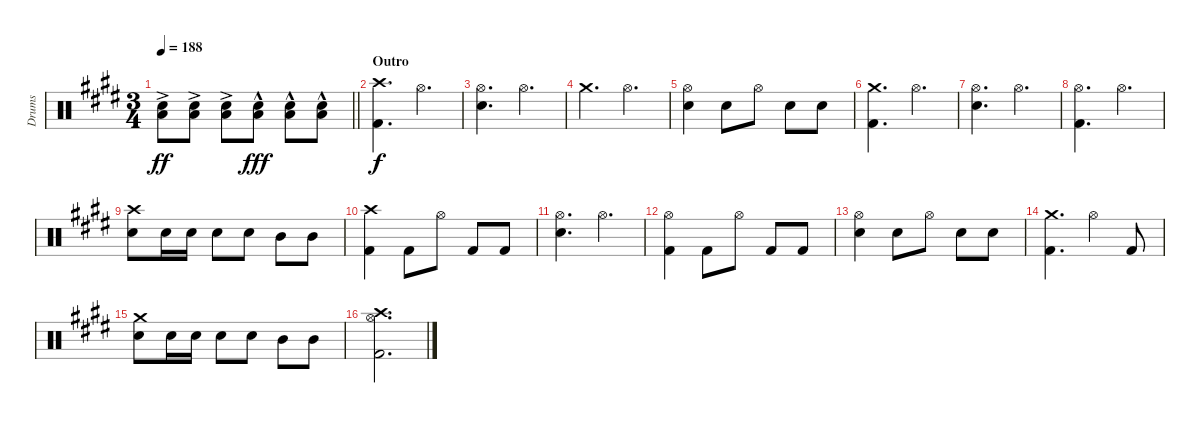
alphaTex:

\track ("Drums" "Drums") {instrument percussion}
\staff {score}
\articulation defaults
\ts (3 4)
\tempo 188
\clef neutral
\barLineRight lightlight
\ks e
("Electric Snare (hit)"{ac} "Low Floor Tom (hit)"{ac}).8{dy ff} ("Electric Snare (hit)"{ac} "Low Floor Tom (hit)"{ac}).8 ("Electric Snare (hit)"{ac} "Low Floor Tom (hit)"{ac}).8 ("Electric Snare (hit)"{hac} "Low Floor Tom (hit)"{hac}).8{dy fff} ("Electric Snare (hit)"{hac} "Low Floor Tom (hit)"{hac}).8 ("Electric Snare (hit)"{hac} "Low Floor Tom (hit)"{hac}).8 |
\section ("" "Outro")
("Crash high (hit)" "Kick (hit) 2").4{d dy f} "Hi-Hat (open)".4{d} |
("Hi-Hat (open)" "Electric Snare (hit)").4{d} "Hi-Hat (open)".4{d} |
"Crash medium (hit)".4{d} "Hi-Hat (open)".4{d} |
("Hi-Hat (open)" "Electric Snare (hit)").4 "Electric Snare (hit)".8 "Hi-Hat (open)".8 "Electric Snare (hit)".8 "Electric Snare (hit)".8 |
("Crash medium (hit)" "Kick (hit) 2").4{d} "Hi-Hat (open)".4{d} |
("Hi-Hat (open)" "Electric Snare (hit)").4{d} "Hi-Hat (open)".4{d} |
("Hi-Hat (open)" "Kick (hit) 2").4{d} "Hi-Hat (open)".4{d} |
("Crash high (hit)" "Electric Snare (hit)").8 "Electric Snare (hit)".16 "Electric Snare (hit)".16 "Electric Snare (hit)".8 "Electric Snare (hit)".8 "Mid Tom (hit)".8 "Mid Tom (hit)".8 |
("Crash high (hit)" "Kick (hit) 2").4 "Kick (hit) 2".8 "Hi-Hat (open)".8 "Kick (hit) 2".8 "Kick (hit) 2".8 |
("Hi-Hat (open)" "Electric Snare (hit)").4{d} "Hi-Hat (open)".4{d} |
("Hi-Hat (open)" "Kick (hit) 2").4 "Kick (hit) 2".8 "Hi-Hat (open)".8 "Kick (hit) 2".8 "Kick (hit) 2".8 |
("Hi-Hat (open)" "Electric Snare (hit)").4 "Electric Snare (hit)".8 "Hi-Hat (open)".8 "Electric Snare (hit)".8 "Electric Snare (hit)".8 |
("Crash medium (hit)" "Kick (hit) 2").4{d} "Hi-Hat (open)".4 "Kick (hit) 2".8 |
("Crash medium (hit)" "Electric Snare (hit)").8 "Electric Snare (hit)".16 "Electric Snare (hit)".16 "Electric Snare (hit)".8 "Electric Snare (hit)".8 "Mid Tom (hit)".8 "Mid Tom (hit)".8 |
("Crash high (hit)" "Hi-Hat (open)" "Kick (hit) 2").2{d}
